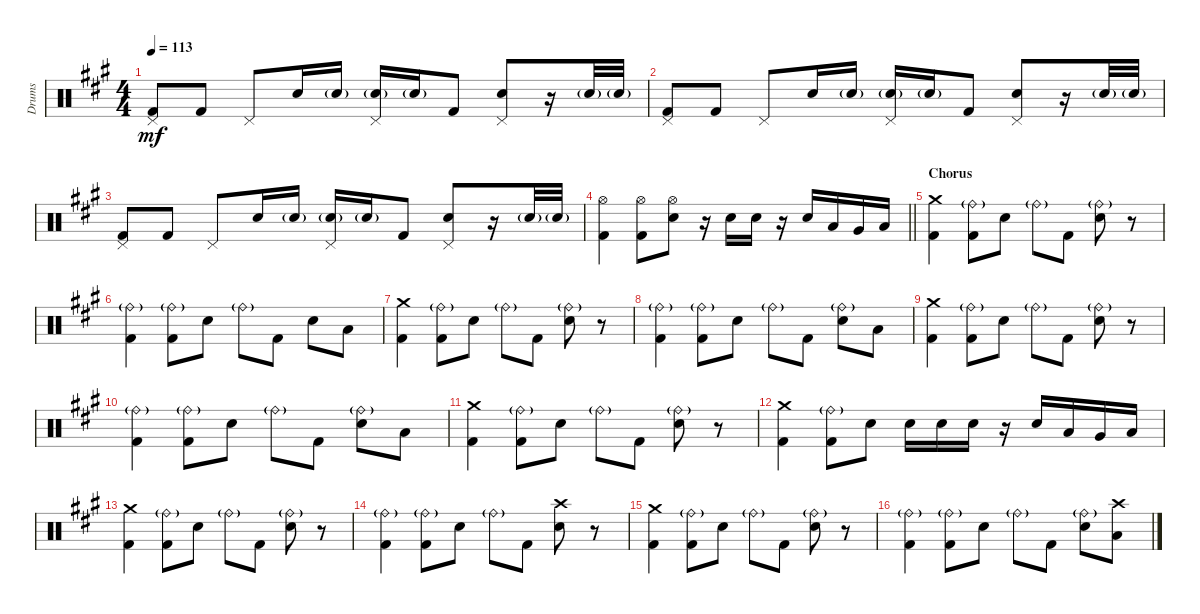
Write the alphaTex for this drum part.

\track ("Drums" "Drums") {instrument percussion}
\staff {score}
\articulation defaults
\ts (4 4)
\tempo 113
\clef neutral
\ks f#minor
("Pedal Hi-Hat (hit)" "Kick (hit) 2").8{dy mf} "Kick (hit) 2".8 "Pedal Hi-Hat (hit)".8 "Snare (hit) 2".16 "Snare (hit) 2"{g}.16 ("Pedal Hi-Hat (hit)" "Snare (hit) 2"{g}).16 "Snare (hit) 2"{g}.16 "Kick (hit) 2".8 ("Pedal Hi-Hat (hit)" "Snare (hit) 2").8 r.16 "Snare (hit) 2"{g}.32 "Snare (hit) 2"{g}.32 |
("Pedal Hi-Hat (hit)" "Kick (hit) 2").8 "Kick (hit) 2".8 "Pedal Hi-Hat (hit)".8 "Snare (hit) 2".16 "Snare (hit) 2"{g}.16 ("Pedal Hi-Hat (hit)" "Snare (hit) 2"{g}).16 "Snare (hit) 2"{g}.16 "Kick (hit) 2".8 ("Pedal Hi-Hat (hit)" "Snare (hit) 2").8 r.16 "Snare (hit) 2"{g}.32 "Snare (hit) 2"{g}.32 |
("Pedal Hi-Hat (hit)" "Kick (hit) 2").8 "Kick (hit) 2".8 "Pedal Hi-Hat (hit)".8 "Snare (hit) 2".16 "Snare (hit) 2"{g}.16 ("Pedal Hi-Hat (hit)" "Snare (hit) 2"{g}).16 "Snare (hit) 2"{g}.16 "Kick (hit) 2".8 ("Pedal Hi-Hat (hit)" "Snare (hit) 2").8 r.16 "Snare (hit) 2"{g}.32 "Snare (hit) 2"{g}.32 |
\barLineRight lightlight
("Hi-Hat (open)" "Kick (hit) 2").4 ("Hi-Hat (open)" "Kick (hit) 2").8 ("Hi-Hat (open)" "Snare (hit) 2").8 r.16 "Snare (hit) 2".16 "Snare (hit) 2".16 r.16 "Snare (hit) 2".16 "Low Tom (hit)".16 "Very Low Tom (hit)".16 "Low Floor Tom (hit)".16 |
\section ("" "Chorus")
("Crash medium (hit)" "Kick (hit) 2").4 ("Ride (bell)"{g} "Kick (hit) 2").8 "Snare (hit) 2".8 "Ride (bell)"{g}.8 "Kick (hit) 2".8 ("Ride (bell)"{g} "Snare (hit) 2").8 r.8 |
("Ride (bell)"{g} "Kick (hit) 2").4 ("Ride (bell)"{g} "Kick (hit) 2").8 "Snare (hit) 2".8 "Ride (bell)"{g}.8 "Kick (hit) 2".8 "Snare (hit) 2".8 "Low Floor Tom (hit)".8 |
("Crash medium (hit)" "Kick (hit) 2").4 ("Ride (bell)"{g} "Kick (hit) 2").8 "Snare (hit) 2".8 "Ride (bell)"{g}.8 "Kick (hit) 2".8 ("Ride (bell)"{g} "Snare (hit) 2").8 r.8 |
("Ride (bell)"{g} "Kick (hit) 2").4 ("Ride (bell)"{g} "Kick (hit) 2").8 "Snare (hit) 2".8 "Ride (bell)"{g}.8 "Kick (hit) 2".8 ("Ride (bell)"{g} "Snare (hit) 2").8 "Low Floor Tom (hit)".8 |
("Crash medium (hit)" "Kick (hit) 2").4 ("Ride (bell)"{g} "Kick (hit) 2").8 "Snare (hit) 2".8 "Ride (bell)"{g}.8 "Kick (hit) 2".8 ("Ride (bell)"{g} "Snare (hit) 2").8 r.8 |
("Ride (bell)"{g} "Kick (hit) 2").4 ("Ride (bell)"{g} "Kick (hit) 2").8 "Snare (hit) 2".8 "Ride (bell)"{g}.8 "Kick (hit) 2".8 ("Ride (bell)"{g} "Snare (hit) 2").8 "Low Floor Tom (hit)".8 |
("Crash medium (hit)" "Kick (hit) 2").4 ("Ride (bell)"{g} "Kick (hit) 2").8 "Snare (hit) 2".8 "Ride (bell)"{g}.8 "Kick (hit) 2".8 ("Ride (bell)"{g} "Snare (hit) 2").8 r.8 |
("Crash medium (hit)" "Kick (hit) 2").4 ("Ride (bell)"{g} "Kick (hit) 2").8 "Snare (hit) 2".8 "Snare (hit) 2".16 "Snare (hit) 2".16 "Snare (hit) 2".16 r.16 "Snare (hit) 2".16 "Low Tom (hit)".16 "Very Low Tom (hit)".16 "Low Floor Tom (hit)".16 |
("Crash medium (hit)" "Kick (hit) 2").4 ("Ride (bell)"{g} "Kick (hit) 2").8 "Snare (hit) 2".8 "Ride (bell)"{g}.8 "Kick (hit) 2".8 ("Ride (bell)"{g} "Snare (hit) 2").8 r.8 |
("Ride (bell)"{g} "Kick (hit) 2").4 ("Ride (bell)"{g} "Kick (hit) 2").8 "Snare (hit) 2".8 "Ride (bell)"{g}.8 "Kick (hit) 2".8 ("Crash high (hit)" "Snare (hit) 2").8 r.8 |
("Crash medium (hit)" "Kick (hit) 2").4 ("Ride (bell)"{g} "Kick (hit) 2").8 "Snare (hit) 2".8 "Ride (bell)"{g}.8 "Kick (hit) 2".8 ("Ride (bell)"{g} "Snare (hit) 2").8 r.8 |
("Ride (bell)"{g} "Kick (hit) 2").4 ("Ride (bell)"{g} "Kick (hit) 2").8 "Snare (hit) 2".8 "Ride (bell)"{g}.8 "Kick (hit) 2".8 ("Ride (bell)"{g} "Snare (hit) 2").8 ("Crash high (hit)" "Low Floor Tom (hit)").8
